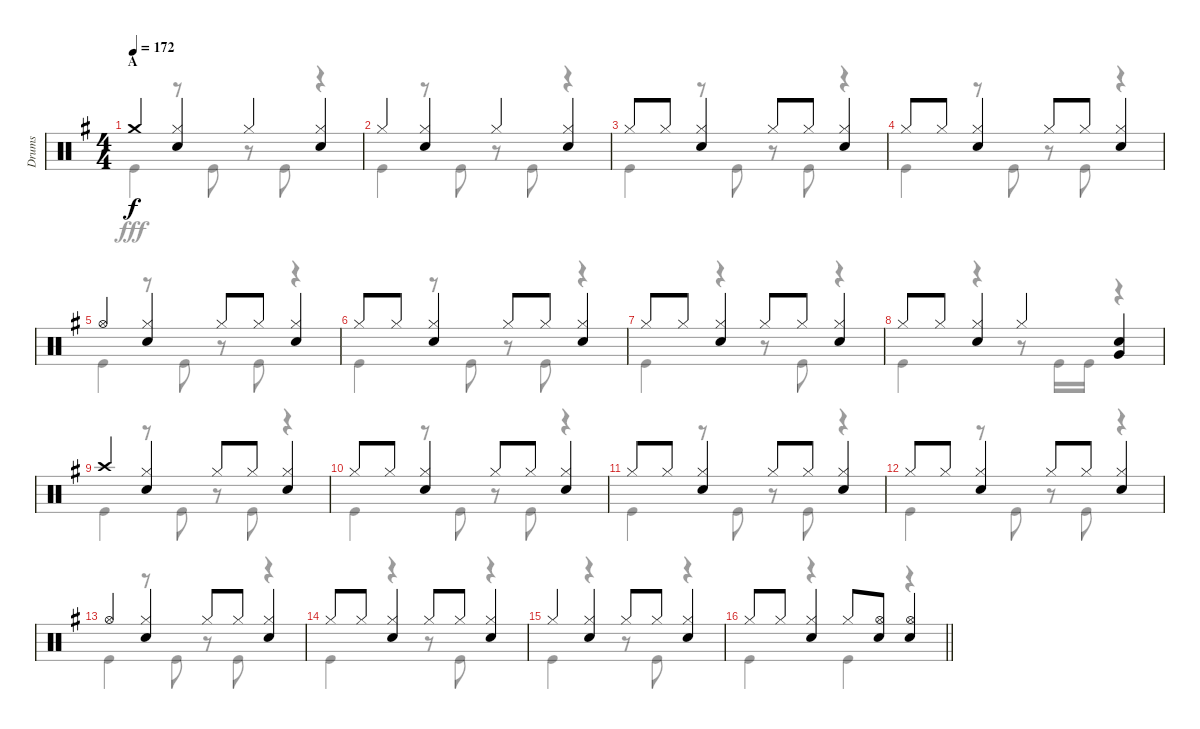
\track ("Drums" "Drums") {instrument percussion}
\staff {score}
\articulation defaults
\voice
\ts (4 4)
\section ("" "A")
\tempo 172
\clef neutral
\ks g "Crash medium (hit)".4{dy f}
("Hi-Hat (closed)" "Snare (hit) 2").4 "Hi-Hat (closed)".4 ("Hi-Hat (closed)" "Snare (hit) 2").4 |
"Hi-Hat (closed)".4 ("Hi-Hat (closed)" "Snare (hit) 2").4 "Hi-Hat (closed)".4 ("Hi-Hat (closed)" "Snare (hit) 2").4 |
"Hi-Hat (closed)".8 "Hi-Hat (closed)".8 ("Hi-Hat (closed)" "Snare (hit) 2").4 "Hi-Hat (closed)".8 "Hi-Hat (closed)".8 ("Hi-Hat (closed)" "Snare (hit) 2").4 |
"Hi-Hat (closed)".8 "Hi-Hat (closed)".8 ("Hi-Hat (closed)" "Snare (hit) 2").4 "Hi-Hat (closed)".8 "Hi-Hat (closed)".8 ("Hi-Hat (closed)" "Snare (hit) 2").4 |
"Hi-Hat (open)".4 ("Hi-Hat (closed)" "Snare (hit) 2").4 "Hi-Hat (closed)".8 "Hi-Hat (closed)".8 ("Hi-Hat (closed)" "Snare (hit) 2").4 |
"Hi-Hat (closed)".8 "Hi-Hat (closed)".8 ("Hi-Hat (closed)" "Snare (hit) 2").4 "Hi-Hat (closed)".8 "Hi-Hat (closed)".8 ("Hi-Hat (closed)" "Snare (hit) 2").4 |
"Hi-Hat (closed)".8 "Hi-Hat (closed)".8 ("Hi-Hat (closed)" "Snare (hit) 2").4 "Hi-Hat (closed)".8 "Hi-Hat (closed)".8 ("Hi-Hat (closed)" "Snare (hit) 2").4 |
"Hi-Hat (closed)".8 "Hi-Hat (closed)".8 ("Hi-Hat (closed)" "Snare (hit) 2").4 "Hi-Hat (closed)".4 ("Snare (hit) 2" "Very Low Tom (hit)").4 |
"Crash high (hit)".4 ("Hi-Hat (closed)" "Snare (hit) 2").4 "Hi-Hat (closed)".8 "Hi-Hat (closed)".8 ("Hi-Hat (closed)" "Snare (hit) 2").4 |
"Hi-Hat (closed)".8 "Hi-Hat (closed)".8 ("Hi-Hat (closed)" "Snare (hit) 2").4 "Hi-Hat (closed)".8 "Hi-Hat (closed)".8 ("Hi-Hat (closed)" "Snare (hit) 2").4 |
"Hi-Hat (closed)".8 "Hi-Hat (closed)".8 ("Hi-Hat (closed)" "Snare (hit) 2").4 "Hi-Hat (closed)".8 "Hi-Hat (closed)".8 ("Hi-Hat (closed)" "Snare (hit) 2").4 |
"Hi-Hat (closed)".8 "Hi-Hat (closed)".8 ("Hi-Hat (closed)" "Snare (hit) 2").4 "Hi-Hat (closed)".8 "Hi-Hat (closed)".8 ("Hi-Hat (closed)" "Snare (hit) 2").4 |
"Hi-Hat (open)".4 ("Hi-Hat (closed)" "Snare (hit) 2").4 "Hi-Hat (closed)".8 "Hi-Hat (closed)".8 ("Hi-Hat (closed)" "Snare (hit) 2").4 |
"Hi-Hat (closed)".8 "Hi-Hat (closed)".8 ("Hi-Hat (closed)" "Snare (hit) 2").4 "Hi-Hat (closed)".8 "Hi-Hat (closed)".8 ("Hi-Hat (closed)" "Snare (hit) 2").4 |
"Hi-Hat (closed)".4 ("Hi-Hat (closed)" "Snare (hit) 2").4 "Hi-Hat (closed)".8 "Hi-Hat (closed)".8 ("Hi-Hat (closed)" "Snare (hit) 2").4 |
\barLineRight lightlight "Hi-Hat (closed)".8 "Hi-Hat (closed)".8
("Hi-Hat (closed)" "Snare (hit) 2").4 "Hi-Hat (closed)".8 ("Hi-Hat (open)" "Snare (hit) 2").8 ("Hi-Hat (open)" "Snare (hit) 2").4
\voice
\clef neutral
\ottava regular
\simile none
\ks g "Kick (hit)".4{dy fff}
r.8 "Kick (hit)".8 r.8 "Kick (hit)".8 r.4 |
"Kick (hit)".4 r.8 "Kick (hit)".8 r.8 "Kick (hit)".8 r.4 |
"Kick (hit)".4 r.8 "Kick (hit)".8 r.8 "Kick (hit)".8 r.4 |
"Kick (hit)".4 r.8 "Kick (hit)".8 r.8 "Kick (hit)".8 r.4 |
"Kick (hit)".4 r.8 "Kick (hit)".8 r.8 "Kick (hit)".8 r.4 |
"Kick (hit)".4 r.8 "Kick (hit)".8 r.8 "Kick (hit)".8 r.4 |
"Kick (hit)".4 r.4 r.8 "Kick (hit)".8 r.4 |
"Kick (hit)".4 r.4 r.8 "Kick (hit)".16 "Kick (hit)".16 r.4 |
"Kick (hit)".4 r.8 "Kick (hit)".8 r.8 "Kick (hit)".8 r.4 |
"Kick (hit)".4 r.8 "Kick (hit)".8 r.8 "Kick (hit)".8 r.4 |
"Kick (hit)".4 r.8 "Kick (hit)".8 r.8 "Kick (hit)".8 r.4 |
"Kick (hit)".4 r.8 "Kick (hit)".8 r.8 "Kick (hit)".8 r.4 |
"Kick (hit)".4 r.8 "Kick (hit)".8 r.8 "Kick (hit)".8 r.4 |
"Kick (hit)".4 r.4 r.8 "Kick (hit)".8 r.4 |
"Kick (hit)".4 r.4 r.8 "Kick (hit)".8 r.4 |
\barLineRight lightlight "Kick (hit)".4
r.4 "Kick (hit)".4 r.4
